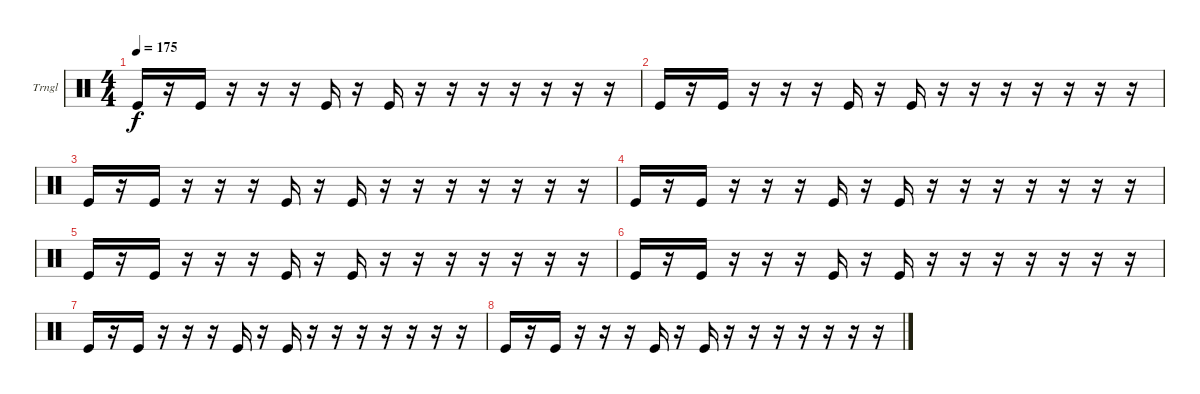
\bracketExtendMode groupsimilarinstruments
\firstSystemTrackNameOrientation horizontal
\otherSystemsTrackNameOrientation horizontal
\track ("Triangle" "Trngl") {instrument percussion}
\staff {score}
\articulation defaults
\ts (4 4)
\tempo 175
\clef neutral
\ks c "Kick (hit)".16{dy f}
r.16 "Kick (hit)".16 r.16 r.16 r.16 "Kick (hit)".16 r.16 "Kick (hit)".16 r.16 r.16 r.16 r.16 r.16 r.16 r.16 |
"Kick (hit)".16 r.16 "Kick (hit)".16 r.16 r.16 r.16 "Kick (hit)".16 r.16 "Kick (hit)".16 r.16 r.16 r.16 r.16 r.16 r.16 r.16 |
"Kick (hit)".16 r.16 "Kick (hit)".16 r.16 r.16 r.16 "Kick (hit)".16 r.16 "Kick (hit)".16 r.16 r.16 r.16 r.16 r.16 r.16 r.16 |
"Kick (hit)".16 r.16 "Kick (hit)".16 r.16 r.16 r.16 "Kick (hit)".16 r.16 "Kick (hit)".16 r.16 r.16 r.16 r.16 r.16 r.16 r.16 |
"Kick (hit)".16 r.16 "Kick (hit)".16 r.16 r.16 r.16 "Kick (hit)".16 r.16 "Kick (hit)".16 r.16 r.16 r.16 r.16 r.16 r.16 r.16 |
"Kick (hit)".16 r.16 "Kick (hit)".16 r.16 r.16 r.16 "Kick (hit)".16 r.16 "Kick (hit)".16 r.16 r.16 r.16 r.16 r.16 r.16 r.16 |
"Kick (hit)".16 r.16 "Kick (hit)".16 r.16 r.16 r.16 "Kick (hit)".16 r.16 "Kick (hit)".16 r.16 r.16 r.16 r.16 r.16 r.16 r.16 |
"Kick (hit)".16 r.16 "Kick (hit)".16 r.16 r.16 r.16 "Kick (hit)".16 r.16 "Kick (hit)".16 r.16 r.16 r.16 r.16 r.16 r.16 r.16
